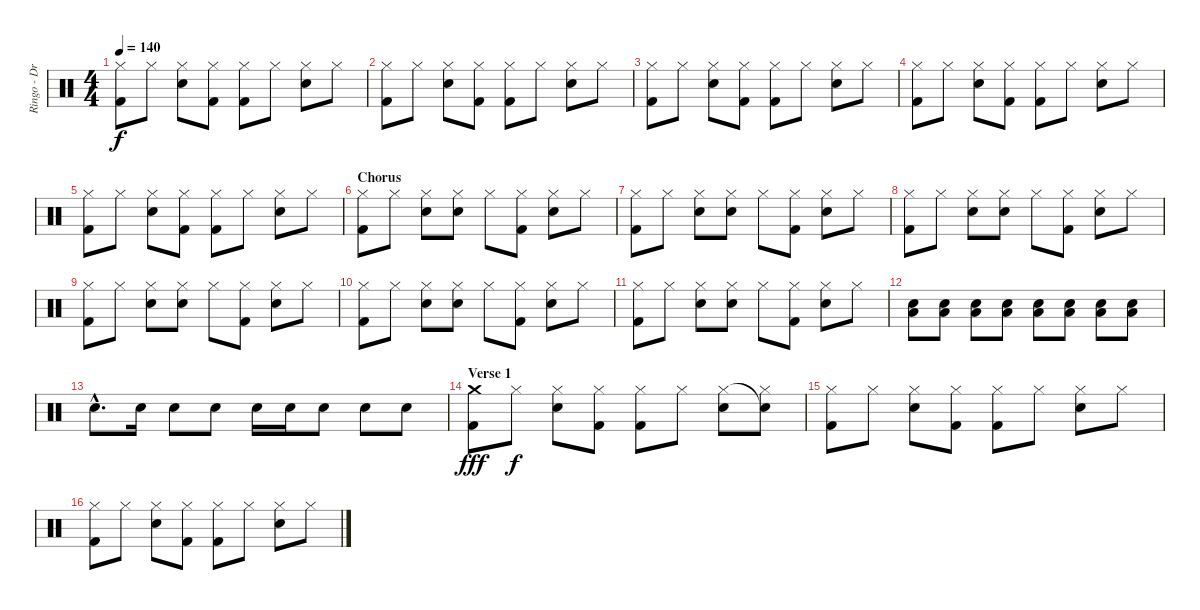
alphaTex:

\track ("Ringo - Drums" "Ringo - Dr") {instrument percussion}
\staff {score}
\articulation defaults
\ts (4 4)
\tempo 140
\clef neutral
\ks c
("Kick (hit) 2" "Hi-Hat (closed)").8{dy f} "Hi-Hat (closed)".8 ("Snare (hit) 2" "Hi-Hat (closed)").8 ("Kick (hit) 2" "Hi-Hat (closed)").8 ("Kick (hit) 2" "Hi-Hat (closed)").8 "Hi-Hat (closed)".8 ("Snare (hit) 2" "Hi-Hat (closed)").8 "Hi-Hat (closed)".8 |
("Kick (hit) 2" "Hi-Hat (closed)").8 "Hi-Hat (closed)".8 ("Snare (hit) 2" "Hi-Hat (closed)").8 ("Kick (hit) 2" "Hi-Hat (closed)").8 ("Kick (hit) 2" "Hi-Hat (closed)").8 "Hi-Hat (closed)".8 ("Snare (hit) 2" "Hi-Hat (closed)").8 "Hi-Hat (closed)".8 |
("Kick (hit) 2" "Hi-Hat (closed)").8 "Hi-Hat (closed)".8 ("Snare (hit) 2" "Hi-Hat (closed)").8 ("Kick (hit) 2" "Hi-Hat (closed)").8 ("Kick (hit) 2" "Hi-Hat (closed)").8 "Hi-Hat (closed)".8 ("Snare (hit) 2" "Hi-Hat (closed)").8 "Hi-Hat (closed)".8 |
("Kick (hit) 2" "Hi-Hat (closed)").8 "Hi-Hat (closed)".8 ("Snare (hit) 2" "Hi-Hat (closed)").8 ("Kick (hit) 2" "Hi-Hat (closed)").8 ("Kick (hit) 2" "Hi-Hat (closed)").8 "Hi-Hat (closed)".8 ("Snare (hit) 2" "Hi-Hat (closed)").8 "Hi-Hat (closed)".8 |
("Kick (hit) 2" "Hi-Hat (closed)").8 "Hi-Hat (closed)".8 ("Snare (hit) 2" "Hi-Hat (closed)").8 ("Kick (hit) 2" "Hi-Hat (closed)").8 ("Kick (hit) 2" "Hi-Hat (closed)").8 "Hi-Hat (closed)".8 ("Snare (hit) 2" "Hi-Hat (closed)").8 "Hi-Hat (closed)".8 |
\section ("" "Chorus")
("Kick (hit) 2" "Hi-Hat (closed)").8 "Hi-Hat (closed)".8 ("Snare (hit) 2" "Hi-Hat (closed)").8 ("Snare (hit) 2" "Hi-Hat (closed)").8 "Hi-Hat (closed)".8 ("Kick (hit) 2" "Hi-Hat (closed)").8 ("Snare (hit) 2" "Hi-Hat (closed)").8 "Hi-Hat (closed)".8 |
("Kick (hit) 2" "Hi-Hat (closed)").8 "Hi-Hat (closed)".8 ("Snare (hit) 2" "Hi-Hat (closed)").8 ("Snare (hit) 2" "Hi-Hat (closed)").8 "Hi-Hat (closed)".8 ("Kick (hit) 2" "Hi-Hat (closed)").8 ("Snare (hit) 2" "Hi-Hat (closed)").8 "Hi-Hat (closed)".8 |
("Kick (hit) 2" "Hi-Hat (closed)").8 "Hi-Hat (closed)".8 ("Snare (hit) 2" "Hi-Hat (closed)").8 ("Snare (hit) 2" "Hi-Hat (closed)").8 "Hi-Hat (closed)".8 ("Kick (hit) 2" "Hi-Hat (closed)").8 ("Snare (hit) 2" "Hi-Hat (closed)").8 "Hi-Hat (closed)".8 |
("Kick (hit) 2" "Hi-Hat (closed)").8 "Hi-Hat (closed)".8 ("Snare (hit) 2" "Hi-Hat (closed)").8 ("Snare (hit) 2" "Hi-Hat (closed)").8 "Hi-Hat (closed)".8 ("Kick (hit) 2" "Hi-Hat (closed)").8 ("Snare (hit) 2" "Hi-Hat (closed)").8 "Hi-Hat (closed)".8 |
("Kick (hit) 2" "Hi-Hat (closed)").8 "Hi-Hat (closed)".8 ("Snare (hit) 2" "Hi-Hat (closed)").8 ("Snare (hit) 2" "Hi-Hat (closed)").8 "Hi-Hat (closed)".8 ("Kick (hit) 2" "Hi-Hat (closed)").8 ("Snare (hit) 2" "Hi-Hat (closed)").8 "Hi-Hat (closed)".8 |
("Kick (hit) 2" "Hi-Hat (closed)").8 "Hi-Hat (closed)".8 ("Snare (hit) 2" "Hi-Hat (closed)").8 ("Snare (hit) 2" "Hi-Hat (closed)").8 "Hi-Hat (closed)".8 ("Kick (hit) 2" "Hi-Hat (closed)").8 ("Snare (hit) 2" "Hi-Hat (closed)").8 "Hi-Hat (closed)".8 |
("Snare (hit) 2" "Low Floor Tom (hit)").8 ("Snare (hit) 2" "Low Floor Tom (hit)").8 ("Snare (hit) 2" "Low Floor Tom (hit)").8 ("Snare (hit) 2" "Low Floor Tom (hit)").8 ("Snare (hit) 2" "Low Floor Tom (hit)").8 ("Snare (hit) 2" "Low Floor Tom (hit)").8 ("Snare (hit) 2" "Low Floor Tom (hit)").8 ("Snare (hit) 2" "Low Floor Tom (hit)").8 |
"Snare (hit) 2"{hac}.8{d} "Snare (hit) 2".16 "Snare (hit) 2".8 "Snare (hit) 2".8 "Snare (hit) 2".16 "Snare (hit) 2".16 "Snare (hit) 2".8 "Snare (hit) 2".8 "Snare (hit) 2".8 |
\section ("" "Verse 1")
("Kick (hit) 2" "Crash medium (hit)").8{dy fff} "Hi-Hat (closed)".8{dy f} ("Snare (hit) 2" "Hi-Hat (closed)").8 ("Kick (hit) 2" "Hi-Hat (closed)").8 ("Kick (hit) 2" "Hi-Hat (closed)").8 "Hi-Hat (closed)".8 ("Snare (hit) 2" "Hi-Hat (closed)").8 ("Hi-Hat (closed)" "Snare (hit)"{t}).8 |
("Kick (hit) 2" "Hi-Hat (closed)").8 "Hi-Hat (closed)".8 ("Snare (hit) 2" "Hi-Hat (closed)").8 ("Kick (hit) 2" "Hi-Hat (closed)").8 ("Kick (hit) 2" "Hi-Hat (closed)").8 "Hi-Hat (closed)".8 ("Snare (hit) 2" "Hi-Hat (closed)").8 "Hi-Hat (closed)".8 |
("Kick (hit) 2" "Hi-Hat (closed)").8 "Hi-Hat (closed)".8 ("Snare (hit) 2" "Hi-Hat (closed)").8 ("Kick (hit) 2" "Hi-Hat (closed)").8 ("Kick (hit) 2" "Hi-Hat (closed)").8 "Hi-Hat (closed)".8 ("Snare (hit) 2" "Hi-Hat (closed)").8 "Hi-Hat (closed)".8
